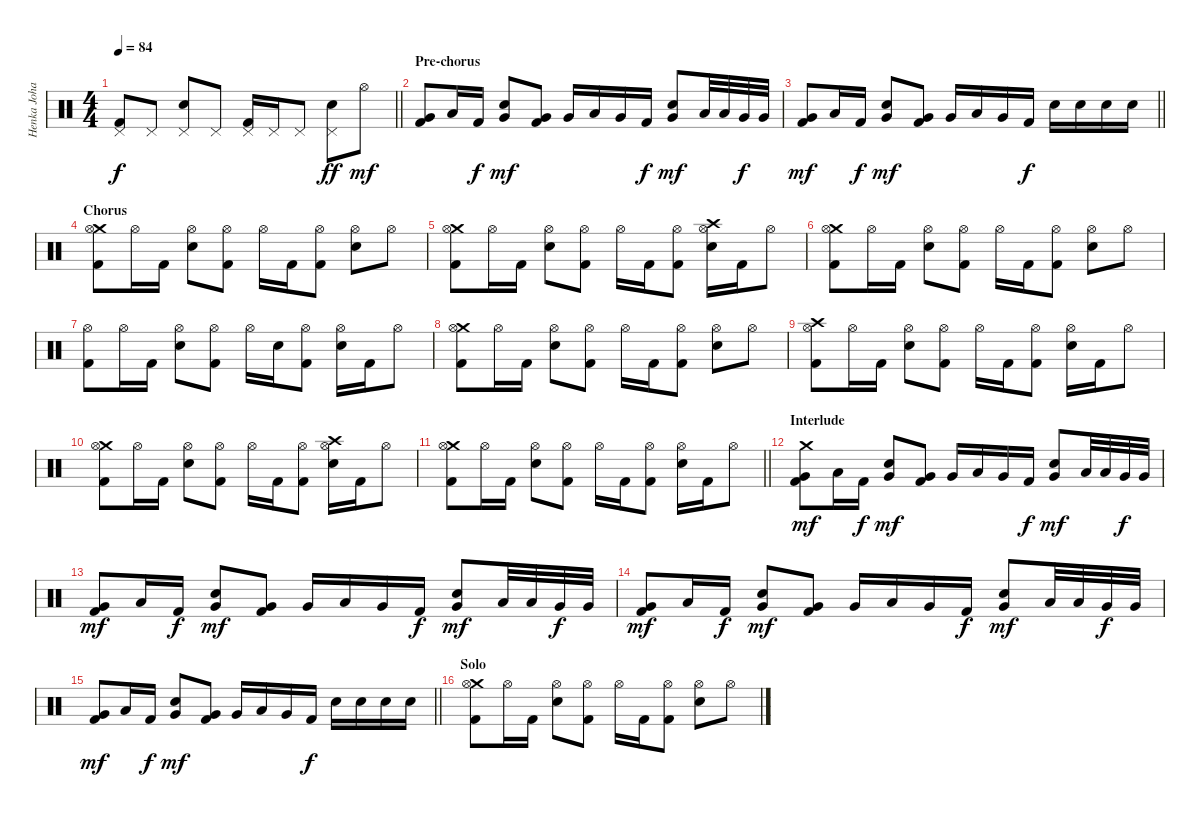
\track ("Henka Johansson" "Henka Joha") {instrument percussion}
\staff {score}
\articulation defaults
\ts (4 4)
\tempo 84
\clef neutral
\barLineRight lightlight
\ks c
("Pedal Hi-Hat (hit)" "Kick (hit) 2").8{dy f} "Pedal Hi-Hat (hit)".8 ("Pedal Hi-Hat (hit)" "Electric Snare (hit)").8 "Pedal Hi-Hat (hit)".8 ("Pedal Hi-Hat (hit)" "Kick (hit) 2").16 "Pedal Hi-Hat (hit)".16 "Pedal Hi-Hat (hit)".8 ("Pedal Hi-Hat (hit)" "Electric Snare (hit)").8{dy ff} "Hi-Hat (open)".8{dy mf} |
\section ("" "Pre-chorus")
("Very Low Tom (hit)" "Kick (hit) 2").8 "Low Tom (hit)".16 "Kick (hit) 2".16{dy f} ("Very Low Tom (hit)" "Electric Snare (hit)").8{dy mf} ("Very Low Tom (hit)" "Kick (hit) 2").8 "Very Low Tom (hit)".16 "Low Tom (hit)".16 "Very Low Tom (hit)".16 "Kick (hit) 2".16{dy f} ("Very Low Tom (hit)" "Electric Snare (hit)").8{dy mf} "Low Tom (hit)".32 "Low Tom (hit)".32 "Very Low Tom (hit)".32{dy f} "Very Low Tom (hit)".32 |
\barLineRight lightlight
("Very Low Tom (hit)" "Kick (hit) 2").8{dy mf} "Low Tom (hit)".16 "Kick (hit) 2".16{dy f} ("Very Low Tom (hit)" "Electric Snare (hit)").8{dy mf} ("Very Low Tom (hit)" "Kick (hit) 2").8 "Very Low Tom (hit)".16 "Low Tom (hit)".16 "Very Low Tom (hit)".16 "Kick (hit) 2".16{dy f} "Electric Snare (hit)".16 "Electric Snare (hit)".16 "Electric Snare (hit)".16 "Electric Snare (hit)".16 |
\section ("" "Chorus")
("Crash medium (hit)" "Hi-Hat (open)" "Kick (hit) 2").8 "Hi-Hat (open)".16 "Kick (hit) 2".16 ("Hi-Hat (open)" "Electric Snare (hit)").8 ("Hi-Hat (open)" "Kick (hit) 2").8 "Hi-Hat (open)".16 "Kick (hit) 2".16 ("Hi-Hat (open)" "Kick (hit) 2").8 ("Hi-Hat (open)" "Electric Snare (hit)").8 "Hi-Hat (open)".8 |
("Crash medium (hit)" "Hi-Hat (open)" "Kick (hit) 2").8 "Hi-Hat (open)".16 "Kick (hit) 2".16 ("Hi-Hat (open)" "Electric Snare (hit)").8 ("Hi-Hat (open)" "Kick (hit) 2").8 "Hi-Hat (open)".16 "Kick (hit) 2".16 ("Hi-Hat (open)" "Kick (hit) 2").8 ("Crash high (hit)" "Hi-Hat (open)" "Electric Snare (hit)").16 "Kick (hit) 2".16 "Hi-Hat (open)".8 |
("Crash medium (hit)" "Hi-Hat (open)" "Kick (hit) 2").8 "Hi-Hat (open)".16 "Kick (hit) 2".16 ("Hi-Hat (open)" "Electric Snare (hit)").8 ("Hi-Hat (open)" "Kick (hit) 2").8 "Hi-Hat (open)".16 "Kick (hit) 2".16 ("Hi-Hat (open)" "Kick (hit) 2").8 ("Hi-Hat (open)" "Electric Snare (hit)").8 "Hi-Hat (open)".8 |
("Hi-Hat (open)" "Kick (hit) 2").8 "Hi-Hat (open)".16 "Kick (hit) 2".16 ("Hi-Hat (open)" "Electric Snare (hit)").8 ("Hi-Hat (open)" "Kick (hit) 2").8 "Hi-Hat (open)".16 "Electric Snare (hit)".16 ("Hi-Hat (open)" "Kick (hit) 2").8 ("Hi-Hat (open)" "Electric Snare (hit)").16 "Kick (hit) 2".16 "Hi-Hat (open)".8 |
("Crash medium (hit)" "Hi-Hat (open)" "Kick (hit) 2").8 "Hi-Hat (open)".16 "Kick (hit) 2".16 ("Hi-Hat (open)" "Electric Snare (hit)").8 ("Hi-Hat (open)" "Kick (hit) 2").8 "Hi-Hat (open)".16 "Kick (hit) 2".16 ("Hi-Hat (open)" "Kick (hit) 2").8 ("Hi-Hat (open)" "Electric Snare (hit)").8 "Hi-Hat (open)".8 |
("Crash high (hit)" "Hi-Hat (open)" "Kick (hit) 2").8 "Hi-Hat (open)".16 "Kick (hit) 2".16 ("Hi-Hat (open)" "Electric Snare (hit)").8 ("Hi-Hat (open)" "Kick (hit) 2").8 "Hi-Hat (open)".16 "Kick (hit) 2".16 ("Hi-Hat (open)" "Kick (hit) 2").8 ("Hi-Hat (open)" "Electric Snare (hit)").16 "Kick (hit) 2".16 "Hi-Hat (open)".8 |
("Crash medium (hit)" "Hi-Hat (open)" "Kick (hit) 2").8 "Hi-Hat (open)".16 "Kick (hit) 2".16 ("Hi-Hat (open)" "Electric Snare (hit)").8 ("Hi-Hat (open)" "Kick (hit) 2").8 "Hi-Hat (open)".16 "Kick (hit) 2".16 ("Hi-Hat (open)" "Kick (hit) 2").8 ("Crash high (hit)" "Hi-Hat (open)" "Electric Snare (hit)").16 "Kick (hit) 2".16 "Hi-Hat (open)".8 |
\barLineRight lightlight
("Crash medium (hit)" "Hi-Hat (open)" "Kick (hit) 2").8 "Hi-Hat (open)".16 "Kick (hit) 2".16 ("Hi-Hat (open)" "Electric Snare (hit)").8 ("Hi-Hat (open)" "Kick (hit) 2").8 "Hi-Hat (open)".16 "Kick (hit) 2".16 ("Hi-Hat (open)" "Kick (hit) 2").8 ("Hi-Hat (open)" "Electric Snare (hit)").16 "Kick (hit) 2".16 "Hi-Hat (open)".8 |
\section ("" "Interlude")
("Crash medium (hit)" "Very Low Tom (hit)" "Kick (hit) 2").8{dy mf} "Low Tom (hit)".16 "Kick (hit) 2".16{dy f} ("Very Low Tom (hit)" "Electric Snare (hit)").8{dy mf} ("Very Low Tom (hit)" "Kick (hit) 2").8 "Very Low Tom (hit)".16 "Low Tom (hit)".16 "Very Low Tom (hit)".16 "Kick (hit) 2".16{dy f} ("Very Low Tom (hit)" "Electric Snare (hit)").8{dy mf} "Low Tom (hit)".32 "Low Tom (hit)".32 "Very Low Tom (hit)".32{dy f} "Very Low Tom (hit)".32 |
("Very Low Tom (hit)" "Kick (hit) 2").8{dy mf} "Low Tom (hit)".16 "Kick (hit) 2".16{dy f} ("Very Low Tom (hit)" "Electric Snare (hit)").8{dy mf} ("Very Low Tom (hit)" "Kick (hit) 2").8 "Very Low Tom (hit)".16 "Low Tom (hit)".16 "Very Low Tom (hit)".16 "Kick (hit) 2".16{dy f} ("Very Low Tom (hit)" "Electric Snare (hit)").8{dy mf} "Low Tom (hit)".32 "Low Tom (hit)".32 "Very Low Tom (hit)".32{dy f} "Very Low Tom (hit)".32 |
("Very Low Tom (hit)" "Kick (hit) 2").8{dy mf} "Low Tom (hit)".16 "Kick (hit) 2".16{dy f} ("Very Low Tom (hit)" "Electric Snare (hit)").8{dy mf} ("Very Low Tom (hit)" "Kick (hit) 2").8 "Very Low Tom (hit)".16 "Low Tom (hit)".16 "Very Low Tom (hit)".16 "Kick (hit) 2".16{dy f} ("Very Low Tom (hit)" "Electric Snare (hit)").8{dy mf} "Low Tom (hit)".32 "Low Tom (hit)".32 "Very Low Tom (hit)".32{dy f} "Very Low Tom (hit)".32 |
\barLineRight lightlight
("Very Low Tom (hit)" "Kick (hit) 2").8{dy mf} "Low Tom (hit)".16 "Kick (hit) 2".16{dy f} ("Very Low Tom (hit)" "Electric Snare (hit)").8{dy mf} ("Very Low Tom (hit)" "Kick (hit) 2").8 "Very Low Tom (hit)".16 "Low Tom (hit)".16 "Very Low Tom (hit)".16 "Kick (hit) 2".16{dy f} "Electric Snare (hit)".16 "Electric Snare (hit)".16 "Electric Snare (hit)".16 "Electric Snare (hit)".16 |
\section ("" "Solo")
("Crash medium (hit)" "Hi-Hat (open)" "Kick (hit) 2").8 "Hi-Hat (open)".16 "Kick (hit) 2".16 ("Hi-Hat (open)" "Electric Snare (hit)").8 ("Hi-Hat (open)" "Kick (hit) 2").8 "Hi-Hat (open)".16 "Kick (hit) 2".16 ("Hi-Hat (open)" "Kick (hit) 2").8 ("Hi-Hat (open)" "Electric Snare (hit)").8 "Hi-Hat (open)".8
